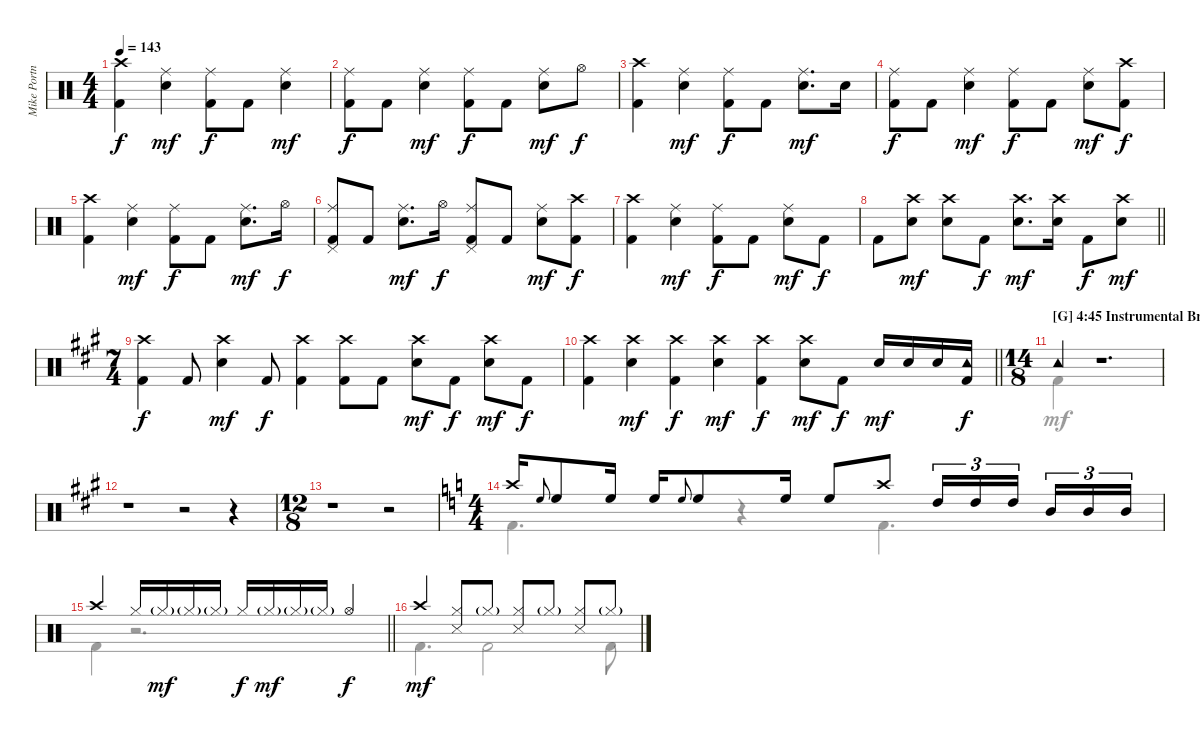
\track ("Mike Portnoy - Drum" "Mike Portn") {instrument percussion}
\staff {score}
\articulation defaults
\voice
\ts (4 4)
\tempo 143
\clef neutral
\ks c
("Crash high (hit)" "Kick (hit) 2").4{dy f} ("Ride (middle)" "Electric Snare (hit)").4{dy mf} ("Ride (middle)" "Kick (hit) 2").8{dy f} "Kick (hit) 2".8 ("Ride (middle)" "Electric Snare (hit)").4{dy mf} |
("Ride (middle)" "Kick (hit) 2").8{dy f} "Kick (hit) 2".8 ("Ride (middle)" "Electric Snare (hit)").4{dy mf} ("Ride (middle)" "Kick (hit) 2").8{dy f} "Kick (hit) 2".8 ("Ride (middle)" "Electric Snare (hit)").8{dy mf} "Hi-Hat (open)".8{dy f} |
("Crash high (hit)" "Kick (hit) 2").4 ("Ride (middle)" "Electric Snare (hit)").4{dy mf} ("Ride (middle)" "Kick (hit) 2").8{dy f} "Kick (hit) 2".8 ("Ride (middle)" "Electric Snare (hit)").8{d dy mf} "Electric Snare (hit)".16 |
("Ride (middle)" "Kick (hit) 2").8{dy f} "Kick (hit) 2".8 ("Ride (middle)" "Electric Snare (hit)").4{dy mf} ("Ride (middle)" "Kick (hit) 2").8{dy f} "Kick (hit) 2".8 ("Ride (middle)" "Electric Snare (hit)").8{dy mf} ("Crash high (hit)" "Kick (hit) 2").8{dy f} |
("Crash high (hit)" "Kick (hit) 2").4 ("Ride (middle)" "Electric Snare (hit)").4{dy mf} ("Ride (middle)" "Kick (hit) 2").8{dy f} "Kick (hit) 2".8 ("Ride (middle)" "Electric Snare (hit)").8{d dy mf} "Hi-Hat (open)".16{dy f} |
("Ride (middle)" "Pedal Hi-Hat (hit)" "Kick (hit) 2").8 "Kick (hit) 2".8 ("Ride (middle)" "Electric Snare (hit)").8{d dy mf} "Hi-Hat (open)".16{dy f} ("Ride (middle)" "Pedal Hi-Hat (hit)" "Kick (hit) 2").8 "Kick (hit) 2".8 ("Ride (middle)" "Electric Snare (hit)").8{dy mf} ("Crash high (hit)" "Kick (hit) 2").8{dy f} |
("Crash high (hit)" "Kick (hit) 2").4 ("Ride (middle)" "Electric Snare (hit)").4{dy mf} ("Ride (middle)" "Kick (hit) 2").8{dy f} "Kick (hit) 2".8 ("Ride (middle)" "Electric Snare (hit)").8{dy mf} "Kick (hit) 2".8{dy f} |
\barLineRight lightlight "Kick (hit) 2".8
("Crash high (hit)" "Electric Snare (hit)").8{dy mf} ("Crash high (hit)" "Electric Snare (hit)").8 "Kick (hit) 2".8{dy f} ("Crash high (hit)" "Electric Snare (hit)").8{d dy mf} ("Crash high (hit)" "Electric Snare (hit)").16 "Kick (hit) 2".8{dy f} ("Crash high (hit)" "Electric Snare (hit)").8{dy mf} |
\ts (7 4)
\ks a
("Crash high (hit)" "Kick (hit) 2").4{dy f} "Kick (hit) 2".8 ("Crash high (hit)" "Electric Snare (hit)").4{dy mf} "Kick (hit) 2".8{dy f} ("Crash high (hit)" "Kick (hit) 2").4 ("Crash high (hit)" "Kick (hit) 2").8 "Kick (hit) 2".8 ("Crash high (hit)" "Electric Snare (hit)").8{dy mf} "Kick (hit) 2".8{dy f} ("Crash high (hit)" "Electric Snare (hit)").8{dy mf} "Kick (hit) 2".8{dy f} |
\barLineRight lightlight
("Crash high (hit)" "Kick (hit) 2").4 ("Crash high (hit)" "Electric Snare (hit)").4{dy mf} ("Crash high (hit)" "Kick (hit) 2").4{dy f} ("Crash high (hit)" "Electric Snare (hit)").4{dy mf} ("Crash high (hit)" "Kick (hit) 2").4{dy f} ("Crash high (hit)" "Electric Snare (hit)").8{dy mf} "Kick (hit) 2".8{dy f} "Electric Snare (hit)".16{dy mf} "Electric Snare (hit)".16 "Electric Snare (hit)".16 ("Tambourine (hit)" "Kick (hit) 2").16{dy f} |
\ts (14 8)
\section ("" "[G] 4:45 Instrumental Break:")
"Tambourine (hit)".4 r.1{d} |
r.1 r.2 r.4 |
\ts (12 8)
r.1 r.2 |
\ts (4 4)
\ks c "Crash high (hit)".16 "High Floor Tom (hit)".8{gr onbeat} "High Floor Tom (hit)".8 "High Floor Tom (hit)".16 "High Floor Tom (hit)".16 "High Floor Tom (hit)".8{gr onbeat} "High Floor Tom (hit)".8 "High Floor Tom (hit)".16 "High Floor Tom (hit)".8 "Crash high (hit)".8 "High Tom (hit)".16{tu (3 2)} "High Tom (hit)".16{tu (3 2)} "High Tom (hit)".16{tu (3 2) beam splitsecondary} "Mid Tom (hit)".16{tu (3 2)} "Mid Tom (hit)".16{tu (3 2)} "Mid Tom (hit)".16{tu (3 2)}
|
\barLineRight lightlight "Crash high (hit)".4 "Hi-Hat (closed)".16 "Hi-Hat (closed)"{g}.16{dy mf} "Hi-Hat (closed)"{g}.16 "Hi-Hat (closed)"{g}.16 "Hi-Hat (closed)".16{dy f} "Hi-Hat (closed)"{g}.16{dy mf} "Hi-Hat (closed)"{g}.16 "Hi-Hat (closed)"{g}.16 "Hi-Hat (open)".4{dy f}
|
"Crash high (hit)".4{dy mf} ("Hi-Hat (closed)" "Snare (side stick) 3").8 "Hi-Hat (closed)"{g}.8 ("Hi-Hat (closed)" "Snare (side stick) 3").8 "Hi-Hat (closed)"{g}.8 ("Hi-Hat (closed)" "Snare (side stick) 3").8 "Hi-Hat (closed)"{g}.8
\voice
\clef neutral
\ottava regular
\simile none
\ks c
|
|
|
|
|
|
|
\barLineRight lightlight
|
\ks a
|
\barLineRight lightlight
|
"Kick (hit) 2".4 r.1{d} |
|
|
\ks c "Kick (hit) 2".4{d}
r.4 "Kick (hit) 2".4{d} |
\barLineRight lightlight "Kick (hit) 2".4
r.2{d} |
"Kick (hit) 2".4{d dy mf} "Kick (hit) 2".2 "Kick (hit) 2".8
